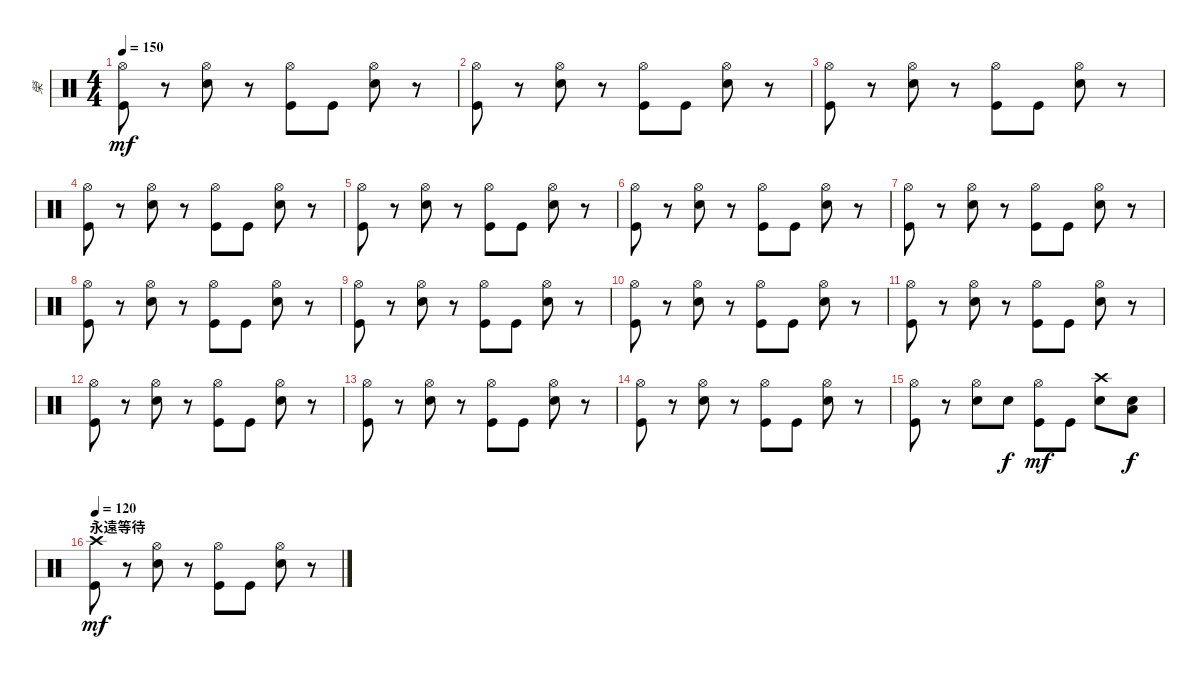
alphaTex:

\track ("榮" "榮") {instrument percussion}
\staff {score}
\articulation defaults
\ts (4 4)
\tempo 150
\clef neutral
\ks c
("Hi-Hat (open)" "Kick (hit)").8{dy mf} r.8 ("Hi-Hat (open)" "Snare (hit) 2").8 r.8 ("Hi-Hat (open)" "Kick (hit)").8 "Kick (hit)".8 ("Hi-Hat (open)" "Snare (hit) 2").8 r.8 |
("Hi-Hat (open)" "Kick (hit)").8 r.8 ("Hi-Hat (open)" "Snare (hit) 2").8 r.8 ("Hi-Hat (open)" "Kick (hit)").8 "Kick (hit)".8 ("Hi-Hat (open)" "Snare (hit) 2").8 r.8 |
("Hi-Hat (open)" "Kick (hit)").8 r.8 ("Hi-Hat (open)" "Snare (hit) 2").8 r.8 ("Hi-Hat (open)" "Kick (hit)").8 "Kick (hit)".8 ("Hi-Hat (open)" "Snare (hit) 2").8 r.8 |
("Hi-Hat (open)" "Kick (hit)").8 r.8 ("Hi-Hat (open)" "Snare (hit) 2").8 r.8 ("Hi-Hat (open)" "Kick (hit)").8 "Kick (hit)".8 ("Hi-Hat (open)" "Snare (hit) 2").8 r.8 |
("Hi-Hat (open)" "Kick (hit)").8 r.8 ("Hi-Hat (open)" "Snare (hit) 2").8 r.8 ("Hi-Hat (open)" "Kick (hit)").8 "Kick (hit)".8 ("Hi-Hat (open)" "Snare (hit) 2").8 r.8 |
("Hi-Hat (open)" "Kick (hit)").8 r.8 ("Hi-Hat (open)" "Snare (hit) 2").8 r.8 ("Hi-Hat (open)" "Kick (hit)").8 "Kick (hit)".8 ("Hi-Hat (open)" "Snare (hit) 2").8 r.8 |
("Hi-Hat (open)" "Kick (hit)").8 r.8 ("Hi-Hat (open)" "Snare (hit) 2").8 r.8 ("Hi-Hat (open)" "Kick (hit)").8 "Kick (hit)".8 ("Hi-Hat (open)" "Snare (hit) 2").8 r.8 |
("Hi-Hat (open)" "Kick (hit)").8 r.8 ("Hi-Hat (open)" "Snare (hit) 2").8 r.8 ("Hi-Hat (open)" "Kick (hit)").8 "Kick (hit)".8 ("Hi-Hat (open)" "Snare (hit) 2").8 r.8 |
("Hi-Hat (open)" "Kick (hit)").8 r.8 ("Hi-Hat (open)" "Snare (hit) 2").8 r.8 ("Hi-Hat (open)" "Kick (hit)").8 "Kick (hit)".8 ("Hi-Hat (open)" "Snare (hit) 2").8 r.8 |
("Hi-Hat (open)" "Kick (hit)").8 r.8 ("Hi-Hat (open)" "Snare (hit) 2").8 r.8 ("Hi-Hat (open)" "Kick (hit)").8 "Kick (hit)".8 ("Hi-Hat (open)" "Snare (hit) 2").8 r.8 |
("Hi-Hat (open)" "Kick (hit)").8 r.8 ("Hi-Hat (open)" "Snare (hit) 2").8 r.8 ("Hi-Hat (open)" "Kick (hit)").8 "Kick (hit)".8 ("Hi-Hat (open)" "Snare (hit) 2").8 r.8 |
("Hi-Hat (open)" "Kick (hit)").8 r.8 ("Hi-Hat (open)" "Snare (hit) 2").8 r.8 ("Hi-Hat (open)" "Kick (hit)").8 "Kick (hit)".8 ("Hi-Hat (open)" "Snare (hit) 2").8 r.8 |
("Hi-Hat (open)" "Kick (hit)").8 r.8 ("Hi-Hat (open)" "Snare (hit) 2").8 r.8 ("Hi-Hat (open)" "Kick (hit)").8 "Kick (hit)".8 ("Hi-Hat (open)" "Snare (hit) 2").8 r.8 |
("Hi-Hat (open)" "Kick (hit)").8 r.8 ("Hi-Hat (open)" "Snare (hit) 2").8 r.8 ("Hi-Hat (open)" "Kick (hit)").8 "Kick (hit)".8 ("Hi-Hat (open)" "Snare (hit) 2").8 r.8 |
("Hi-Hat (open)" "Kick (hit)").8 r.8 ("Hi-Hat (open)" "Snare (hit) 2").8 "Snare (hit) 2".8{dy f} ("Hi-Hat (open)" "Kick (hit)").8{dy mf} "Kick (hit)".8 ("Crash high (hit)" "Snare (hit) 2").8 ("Snare (hit) 2" "Low Tom (hit)").8{dy f} |
\section ("" "永遠等待")
\tempo 120
("Crash high (hit)" "Kick (hit)").8{dy mf} r.8 ("Hi-Hat (open)" "Snare (hit) 2").8 r.8 ("Hi-Hat (open)" "Kick (hit)").8 "Kick (hit)".8 ("Hi-Hat (open)" "Snare (hit) 2").8 r.8
